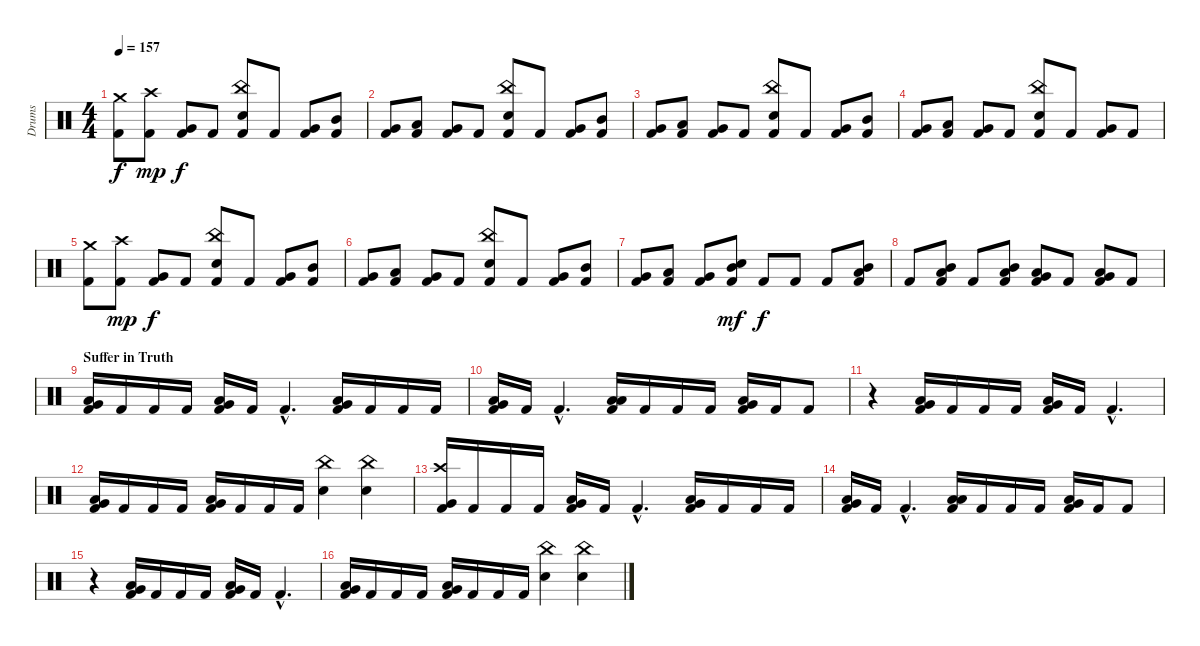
\track ("Drums" "Drums") {instrument percussion}
\staff {score}
\articulation defaults
\ts (4 4)
\tempo 157
\clef neutral
\ks c
("Crash medium (hit)" "Kick (hit) 2").8{dy f} ("Crash high (hit)" "Kick (hit) 2").8{dy mp} ("Very Low Tom (hit)" "Kick (hit) 2").8{dy f} "Kick (hit) 2".8 ("China (hit)" "Electric Snare (hit)" "Kick (hit) 2").8 "Kick (hit) 2".8 ("Very Low Tom (hit)" "Kick (hit) 2").8 ("Mid Tom (hit)" "Kick (hit) 2").8 |
("Very Low Tom (hit)" "Kick (hit) 2").8 ("Low Tom (hit)" "Kick (hit) 2").8 ("Very Low Tom (hit)" "Kick (hit) 2").8 "Kick (hit) 2".8 ("China (hit)" "Electric Snare (hit)" "Kick (hit) 2").8 "Kick (hit) 2".8 ("Very Low Tom (hit)" "Kick (hit) 2").8 ("Mid Tom (hit)" "Kick (hit) 2").8 |
("Very Low Tom (hit)" "Kick (hit) 2").8 ("Low Tom (hit)" "Kick (hit) 2").8 ("Very Low Tom (hit)" "Kick (hit) 2").8 "Kick (hit) 2".8 ("China (hit)" "Electric Snare (hit)" "Kick (hit) 2").8 "Kick (hit) 2".8 ("Very Low Tom (hit)" "Kick (hit) 2").8 ("Mid Tom (hit)" "Kick (hit) 2").8 |
("Very Low Tom (hit)" "Kick (hit) 2").8 ("Low Tom (hit)" "Kick (hit) 2").8 ("Very Low Tom (hit)" "Kick (hit) 2").8 "Kick (hit) 2".8 ("China (hit)" "Electric Snare (hit)" "Kick (hit) 2").8 "Kick (hit) 2".8 ("Very Low Tom (hit)" "Kick (hit) 2").8 "Kick (hit) 2".8 |
("Crash medium (hit)" "Kick (hit) 2").8 ("Crash high (hit)" "Kick (hit) 2").8{dy mp} ("Very Low Tom (hit)" "Kick (hit) 2").8{dy f} "Kick (hit) 2".8 ("China (hit)" "Electric Snare (hit)" "Kick (hit) 2").8 "Kick (hit) 2".8 ("Very Low Tom (hit)" "Kick (hit) 2").8 ("Mid Tom (hit)" "Kick (hit) 2").8 |
("Very Low Tom (hit)" "Kick (hit) 2").8 ("Low Tom (hit)" "Kick (hit) 2").8 ("Very Low Tom (hit)" "Kick (hit) 2").8 "Kick (hit) 2".8 ("China (hit)" "Electric Snare (hit)" "Kick (hit) 2").8 "Kick (hit) 2".8 ("Very Low Tom (hit)" "Kick (hit) 2").8 ("Mid Tom (hit)" "Kick (hit) 2").8 |
("Very Low Tom (hit)" "Kick (hit) 2").8 ("Low Tom (hit)" "Kick (hit) 2").8 ("Very Low Tom (hit)" "Kick (hit) 2").8 ("Mid Tom (hit)" "Electric Snare (hit)" "Kick (hit) 2").8{dy mf} "Kick (hit) 2".8{dy f} "Kick (hit) 2".8 "Kick (hit) 2".8 ("Mid Tom (hit)" "Low Tom (hit)" "Kick (hit) 2").8 |
"Kick (hit) 2".8 ("Mid Tom (hit)" "Low Tom (hit)" "Kick (hit) 2").8 "Kick (hit) 2".8 ("Mid Tom (hit)" "Low Tom (hit)" "Kick (hit) 2").8 ("Low Tom (hit)" "Very Low Tom (hit)" "Kick (hit) 2").8 "Kick (hit) 2".8 ("Low Tom (hit)" "Very Low Tom (hit)" "Kick (hit) 2").8 "Kick (hit) 2".8 |
\section ("" "Suffer in Truth")
("Low Tom (hit)" "Very Low Tom (hit)" "Kick (hit) 2").16 "Kick (hit) 2".16 "Kick (hit) 2".16 "Kick (hit) 2".16 ("Low Tom (hit)" "Very Low Tom (hit)" "Kick (hit) 2").16 "Kick (hit) 2".16 "Kick (hit) 2"{hac}.4{d} ("Low Tom (hit)" "Very Low Tom (hit)" "Kick (hit) 2").16 "Kick (hit) 2".16 "Kick (hit) 2".16 "Kick (hit) 2".16 |
("Low Tom (hit)" "Very Low Tom (hit)" "Kick (hit) 2").16 "Kick (hit) 2".16 "Kick (hit) 2"{hac}.4{d} ("Low Tom (hit)" "Low Tom (hit)" "Kick (hit) 2").16 "Kick (hit) 2".16 "Kick (hit) 2".16 "Kick (hit) 2".16 ("Low Tom (hit)" "Very Low Tom (hit)" "Kick (hit) 2").16 "Kick (hit) 2".16 "Kick (hit) 2".8 |
r.4 ("Low Tom (hit)" "Very Low Tom (hit)" "Kick (hit) 2").16 "Kick (hit) 2".16 "Kick (hit) 2".16 "Kick (hit) 2".16 ("Low Tom (hit)" "Very Low Tom (hit)" "Kick (hit) 2").16 "Kick (hit) 2".16 "Kick (hit) 2"{hac}.4{d} |
("Low Tom (hit)" "Very Low Tom (hit)" "Kick (hit) 2").16 "Kick (hit) 2".16 "Kick (hit) 2".16 "Kick (hit) 2".16 ("Low Tom (hit)" "Very Low Tom (hit)" "Kick (hit) 2").16 "Kick (hit) 2".16 "Kick (hit) 2".16 "Kick (hit) 2".16 ("China (hit)" "Electric Snare (hit)").4 ("China (hit)" "Electric Snare (hit)").4 |
("Crash high (hit)" "Very Low Tom (hit)" "Kick (hit) 2").16 "Kick (hit) 2".16 "Kick (hit) 2".16 "Kick (hit) 2".16 ("Low Tom (hit)" "Very Low Tom (hit)" "Kick (hit) 2").16 "Kick (hit) 2".16 "Kick (hit) 2"{hac}.4{d} ("Low Tom (hit)" "Very Low Tom (hit)" "Kick (hit) 2").16 "Kick (hit) 2".16 "Kick (hit) 2".16 "Kick (hit) 2".16 |
("Low Tom (hit)" "Very Low Tom (hit)" "Kick (hit) 2").16 "Kick (hit) 2".16 "Kick (hit) 2"{hac}.4{d} ("Low Tom (hit)" "Low Tom (hit)" "Kick (hit) 2").16 "Kick (hit) 2".16 "Kick (hit) 2".16 "Kick (hit) 2".16 ("Low Tom (hit)" "Very Low Tom (hit)" "Kick (hit) 2").16 "Kick (hit) 2".16 "Kick (hit) 2".8 |
r.4 ("Low Tom (hit)" "Very Low Tom (hit)" "Kick (hit) 2").16 "Kick (hit) 2".16 "Kick (hit) 2".16 "Kick (hit) 2".16 ("Low Tom (hit)" "Very Low Tom (hit)" "Kick (hit) 2").16 "Kick (hit) 2".16 "Kick (hit) 2"{hac}.4{d} |
("Low Tom (hit)" "Very Low Tom (hit)" "Kick (hit) 2").16 "Kick (hit) 2".16 "Kick (hit) 2".16 "Kick (hit) 2".16 ("Low Tom (hit)" "Very Low Tom (hit)" "Kick (hit) 2").16 "Kick (hit) 2".16 "Kick (hit) 2".16 "Kick (hit) 2".16 ("China (hit)" "Electric Snare (hit)").4 ("China (hit)" "Electric Snare (hit)").4
